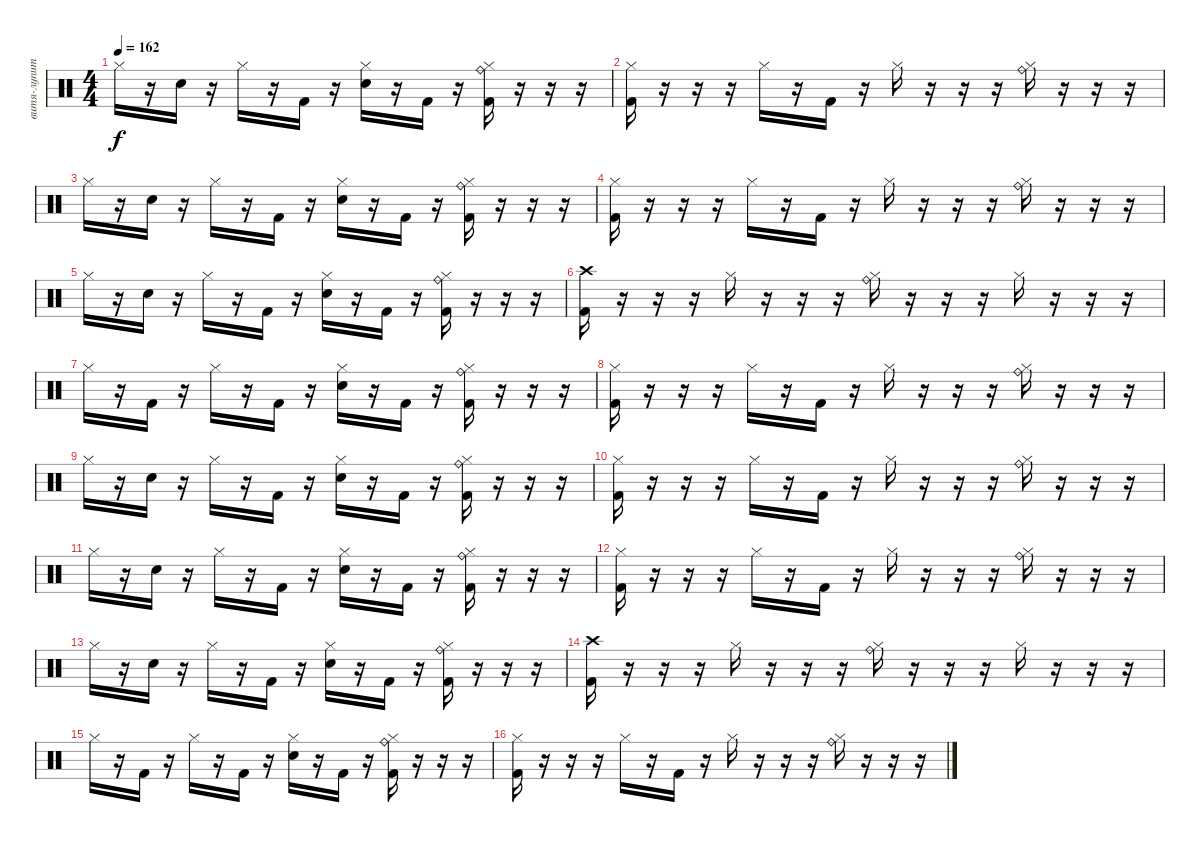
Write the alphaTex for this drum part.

\track ("витя-лупит" "витя-лупит") {instrument percussion}
\staff {score}
\articulation defaults
\ts (4 4)
\tempo 162
\clef neutral
\ks c "Hi-Hat (closed)".16{dy f}
r.16 "Snare (hit) 2".16 r.16 "Hi-Hat (closed)".16 r.16 "Kick (hit) 2".16 r.16 ("Snare (hit) 2" "Hi-Hat (closed)").16 r.16 "Kick (hit) 2".16 r.16 ("Kick (hit) 2" "Ride (bell)" "Hi-Hat (closed)").16 r.16 r.16 r.16 |
("Kick (hit) 2" "Hi-Hat (closed)").16 r.16 r.16 r.16 "Hi-Hat (closed)".16 r.16 "Kick (hit) 2".16 r.16 "Hi-Hat (closed)".16 r.16 r.16 r.16 ("Ride (bell)" "Hi-Hat (closed)").16 r.16 r.16 r.16 |
"Hi-Hat (closed)".16 r.16 "Snare (hit) 2".16 r.16 "Hi-Hat (closed)".16 r.16 "Kick (hit) 2".16 r.16 ("Snare (hit) 2" "Hi-Hat (closed)").16 r.16 "Kick (hit) 2".16 r.16 ("Kick (hit) 2" "Ride (bell)" "Hi-Hat (closed)").16 r.16 r.16 r.16 |
("Kick (hit) 2" "Hi-Hat (closed)").16 r.16 r.16 r.16 "Hi-Hat (closed)".16 r.16 "Kick (hit) 2".16 r.16 "Hi-Hat (closed)".16 r.16 r.16 r.16 ("Ride (bell)" "Hi-Hat (closed)").16 r.16 r.16 r.16 |
"Hi-Hat (closed)".16 r.16 "Snare (hit) 2".16 r.16 "Hi-Hat (closed)".16 r.16 "Kick (hit) 2".16 r.16 ("Snare (hit) 2" "Hi-Hat (closed)").16 r.16 "Kick (hit) 2".16 r.16 ("Kick (hit) 2" "Ride (bell)" "Hi-Hat (closed)").16 r.16 r.16 r.16 |
("Crash high (hit)" "Kick (hit) 2").16 r.16 r.16 r.16 "Hi-Hat (closed)".16 r.16 r.16 r.16 ("Ride (bell)" "Hi-Hat (closed)").16 r.16 r.16 r.16 "Hi-Hat (closed)".16 r.16 r.16 r.16 |
"Hi-Hat (closed)".16 r.16 "Kick (hit) 2".16 r.16 "Hi-Hat (closed)".16 r.16 "Kick (hit) 2".16 r.16 ("Snare (hit) 2" "Hi-Hat (closed)").16 r.16 "Kick (hit) 2".16 r.16 ("Kick (hit) 2" "Ride (bell)" "Hi-Hat (closed)").16 r.16 r.16 r.16 |
("Kick (hit) 2" "Hi-Hat (closed)").16 r.16 r.16 r.16 "Hi-Hat (closed)".16 r.16 "Kick (hit) 2".16 r.16 "Hi-Hat (closed)".16 r.16 r.16 r.16 ("Ride (bell)" "Hi-Hat (closed)").16 r.16 r.16 r.16 |
"Hi-Hat (closed)".16 r.16 "Snare (hit) 2".16 r.16 "Hi-Hat (closed)".16 r.16 "Kick (hit) 2".16 r.16 ("Snare (hit) 2" "Hi-Hat (closed)").16 r.16 "Kick (hit) 2".16 r.16 ("Kick (hit) 2" "Ride (bell)" "Hi-Hat (closed)").16 r.16 r.16 r.16 |
("Kick (hit) 2" "Hi-Hat (closed)").16 r.16 r.16 r.16 "Hi-Hat (closed)".16 r.16 "Kick (hit) 2".16 r.16 "Hi-Hat (closed)".16 r.16 r.16 r.16 ("Ride (bell)" "Hi-Hat (closed)").16 r.16 r.16 r.16 |
"Hi-Hat (closed)".16 r.16 "Snare (hit) 2".16 r.16 "Hi-Hat (closed)".16 r.16 "Kick (hit) 2".16 r.16 ("Snare (hit) 2" "Hi-Hat (closed)").16 r.16 "Kick (hit) 2".16 r.16 ("Kick (hit) 2" "Ride (bell)" "Hi-Hat (closed)").16 r.16 r.16 r.16 |
("Kick (hit) 2" "Hi-Hat (closed)").16 r.16 r.16 r.16 "Hi-Hat (closed)".16 r.16 "Kick (hit) 2".16 r.16 "Hi-Hat (closed)".16 r.16 r.16 r.16 ("Ride (bell)" "Hi-Hat (closed)").16 r.16 r.16 r.16 |
"Hi-Hat (closed)".16 r.16 "Snare (hit) 2".16 r.16 "Hi-Hat (closed)".16 r.16 "Kick (hit) 2".16 r.16 ("Snare (hit) 2" "Hi-Hat (closed)").16 r.16 "Kick (hit) 2".16 r.16 ("Kick (hit) 2" "Ride (bell)" "Hi-Hat (closed)").16 r.16 r.16 r.16 |
("Crash high (hit)" "Kick (hit) 2").16 r.16 r.16 r.16 "Hi-Hat (closed)".16 r.16 r.16 r.16 ("Ride (bell)" "Hi-Hat (closed)").16 r.16 r.16 r.16 "Hi-Hat (closed)".16 r.16 r.16 r.16 |
"Hi-Hat (closed)".16 r.16 "Kick (hit) 2".16 r.16 "Hi-Hat (closed)".16 r.16 "Kick (hit) 2".16 r.16 ("Snare (hit) 2" "Hi-Hat (closed)").16 r.16 "Kick (hit) 2".16 r.16 ("Kick (hit) 2" "Ride (bell)" "Hi-Hat (closed)").16 r.16 r.16 r.16 |
("Kick (hit) 2" "Hi-Hat (closed)").16 r.16 r.16 r.16 "Hi-Hat (closed)".16 r.16 "Kick (hit) 2".16 r.16 "Hi-Hat (closed)".16 r.16 r.16 r.16 ("Ride (bell)" "Hi-Hat (closed)").16 r.16 r.16 r.16
